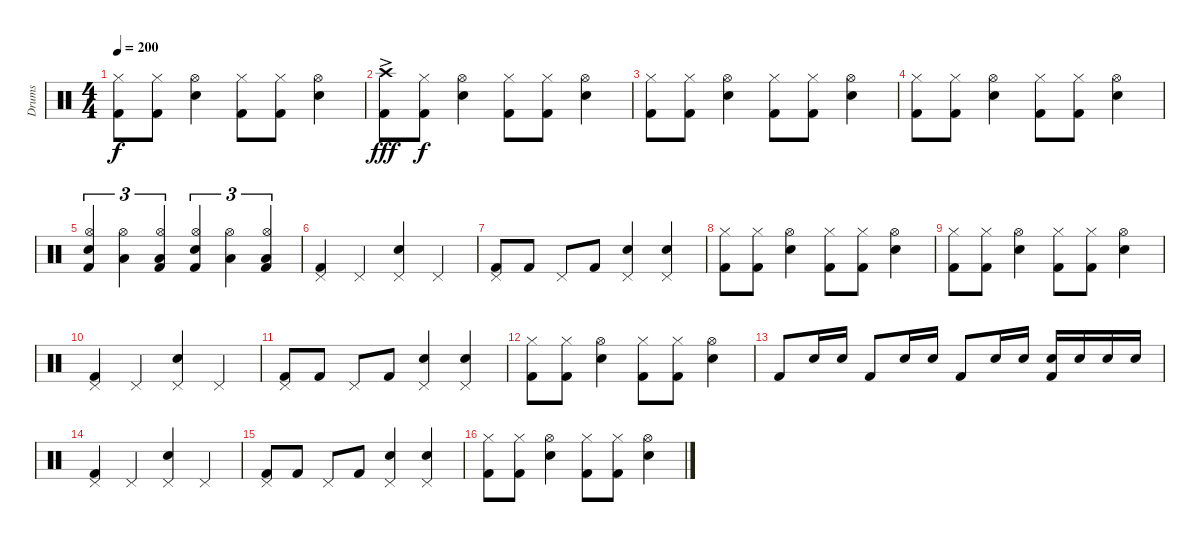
\track ("Drums" "Drums") {instrument percussion}
\staff {score}
\articulation defaults
\ts (4 4)
\tempo 200
\clef neutral
\ks c
("Hi-Hat (closed)" "Kick (hit) 2").8{dy f} ("Hi-Hat (closed)" "Kick (hit) 2").8 ("Hi-Hat (open)" "Snare (hit) 2").4 ("Hi-Hat (closed)" "Kick (hit) 2").8 ("Hi-Hat (closed)" "Kick (hit) 2").8 ("Hi-Hat (open)" "Snare (hit) 2").4 |
("Crash high (hit)"{ac} "Kick (hit) 2").8{dy fff} ("Hi-Hat (closed)" "Kick (hit) 2").8{dy f} ("Hi-Hat (open)" "Snare (hit) 2").4 ("Hi-Hat (closed)" "Kick (hit) 2").8 ("Hi-Hat (closed)" "Kick (hit) 2").8 ("Hi-Hat (open)" "Snare (hit) 2").4 |
("Hi-Hat (closed)" "Kick (hit) 2").8 ("Hi-Hat (closed)" "Kick (hit) 2").8 ("Hi-Hat (open)" "Snare (hit) 2").4 ("Hi-Hat (closed)" "Kick (hit) 2").8 ("Hi-Hat (closed)" "Kick (hit) 2").8 ("Hi-Hat (open)" "Snare (hit) 2").4 |
("Hi-Hat (closed)" "Kick (hit) 2").8 ("Hi-Hat (closed)" "Kick (hit) 2").8 ("Hi-Hat (open)" "Snare (hit) 2").4 ("Hi-Hat (closed)" "Kick (hit) 2").8 ("Hi-Hat (closed)" "Kick (hit) 2").8 ("Hi-Hat (open)" "Snare (hit) 2").4 |
("Hi-Hat (open)" "Snare (hit) 2" "Kick (hit) 2").4{tu (3 2)} ("Hi-Hat (open)" "Low Tom (hit)").4{tu (3 2)} ("Hi-Hat (open)" "Low Floor Tom (hit)" "Kick (hit) 2").4{tu (3 2)} ("Hi-Hat (open)" "Snare (hit) 2" "Kick (hit) 2").4{tu (3 2)} ("Hi-Hat (open)" "Low Tom (hit)").4{tu (3 2)} ("Hi-Hat (open)" "Low Floor Tom (hit)" "Kick (hit) 2").4{tu (3 2)} |
("Pedal Hi-Hat (hit)" "Kick (hit) 2").4 "Pedal Hi-Hat (hit)".4 ("Pedal Hi-Hat (hit)" "Snare (hit) 2").4 "Pedal Hi-Hat (hit)".4 |
("Pedal Hi-Hat (hit)" "Kick (hit) 2").8 "Kick (hit) 2".8 "Pedal Hi-Hat (hit)".8 "Kick (hit) 2".8 ("Pedal Hi-Hat (hit)" "Snare (hit) 2").4 ("Pedal Hi-Hat (hit)" "Snare (hit) 2").4 |
("Hi-Hat (closed)" "Kick (hit) 2").8 ("Hi-Hat (closed)" "Kick (hit) 2").8 ("Hi-Hat (open)" "Snare (hit) 2").4 ("Hi-Hat (closed)" "Kick (hit) 2").8 ("Hi-Hat (closed)" "Kick (hit) 2").8 ("Hi-Hat (open)" "Snare (hit) 2").4 |
("Hi-Hat (closed)" "Kick (hit) 2").8 ("Hi-Hat (closed)" "Kick (hit) 2").8 ("Hi-Hat (open)" "Snare (hit) 2").4 ("Hi-Hat (closed)" "Kick (hit) 2").8 ("Hi-Hat (closed)" "Kick (hit) 2").8 ("Hi-Hat (open)" "Snare (hit) 2").4 |
("Pedal Hi-Hat (hit)" "Kick (hit) 2").4 "Pedal Hi-Hat (hit)".4 ("Pedal Hi-Hat (hit)" "Snare (hit) 2").4 "Pedal Hi-Hat (hit)".4 |
("Pedal Hi-Hat (hit)" "Kick (hit) 2").8 "Kick (hit) 2".8 "Pedal Hi-Hat (hit)".8 "Kick (hit) 2".8 ("Pedal Hi-Hat (hit)" "Snare (hit) 2").4 ("Pedal Hi-Hat (hit)" "Snare (hit) 2").4 |
("Hi-Hat (closed)" "Kick (hit) 2").8 ("Hi-Hat (closed)" "Kick (hit) 2").8 ("Hi-Hat (open)" "Snare (hit) 2").4 ("Hi-Hat (closed)" "Kick (hit) 2").8 ("Hi-Hat (closed)" "Kick (hit) 2").8 ("Hi-Hat (open)" "Snare (hit) 2").4 |
"Kick (hit) 2".8 "Snare (hit) 2".16 "Snare (hit) 2".16 "Kick (hit) 2".8 "Snare (hit) 2".16 "Snare (hit) 2".16 "Kick (hit) 2".8 "Snare (hit) 2".16 "Snare (hit) 2".16 ("Snare (hit) 2" "Kick (hit) 2").16 "Snare (hit) 2".16 "Snare (hit) 2".16 "Snare (hit) 2".16 |
\section ("" "")
("Pedal Hi-Hat (hit)" "Kick (hit) 2").4 "Pedal Hi-Hat (hit)".4 ("Pedal Hi-Hat (hit)" "Snare (hit) 2").4 "Pedal Hi-Hat (hit)".4 |
("Pedal Hi-Hat (hit)" "Kick (hit) 2").8 "Kick (hit) 2".8 "Pedal Hi-Hat (hit)".8 "Kick (hit) 2".8 ("Pedal Hi-Hat (hit)" "Snare (hit) 2").4 ("Pedal Hi-Hat (hit)" "Snare (hit) 2").4 |
("Hi-Hat (closed)" "Kick (hit) 2").8 ("Hi-Hat (closed)" "Kick (hit) 2").8 ("Hi-Hat (open)" "Snare (hit) 2").4 ("Hi-Hat (closed)" "Kick (hit) 2").8 ("Hi-Hat (closed)" "Kick (hit) 2").8 ("Hi-Hat (open)" "Snare (hit) 2").4
